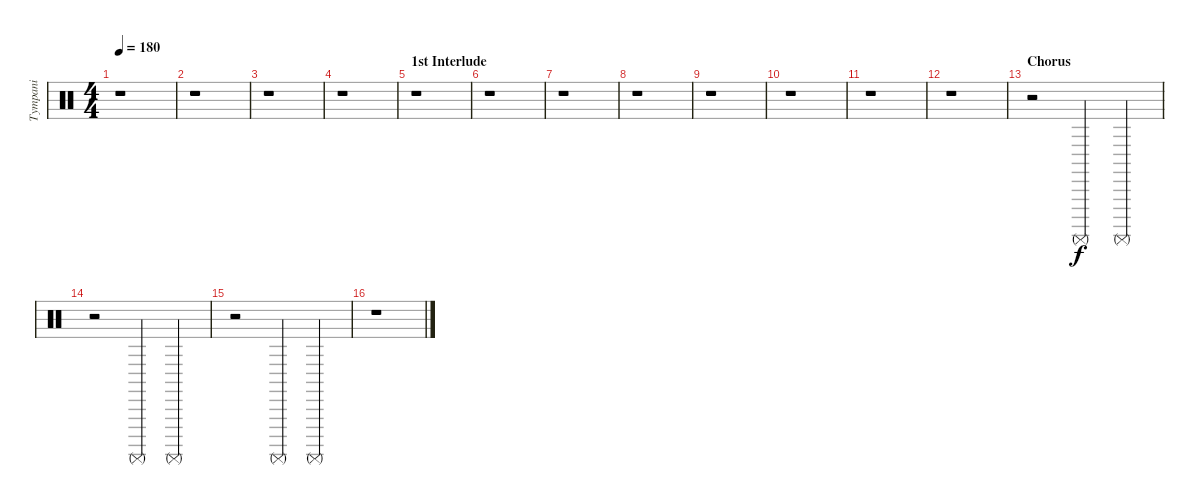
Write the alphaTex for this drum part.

\track ("Tympani" "Tympani") {instrument percussion}
\staff {score}
\articulation defaults
\ts (4 4)
\tempo 180
\clef neutral
\ks c
r.1{dy f} |
r.1 |
r.1 |
r.1 |
\section ("" "1st Interlude")
r.1 |
r.1 |
r.1 |
r.1 |
r.1 |
r.1 |
r.1 |
r.1 |
\section ("" "Chorus")
r.2 "Surdo (mute)".4 "Surdo (mute)".4 |
r.2 "Surdo (mute)".4 "Surdo (mute)".4 |
r.2 "Surdo (mute)".4 "Surdo (mute)".4 |
r.1
